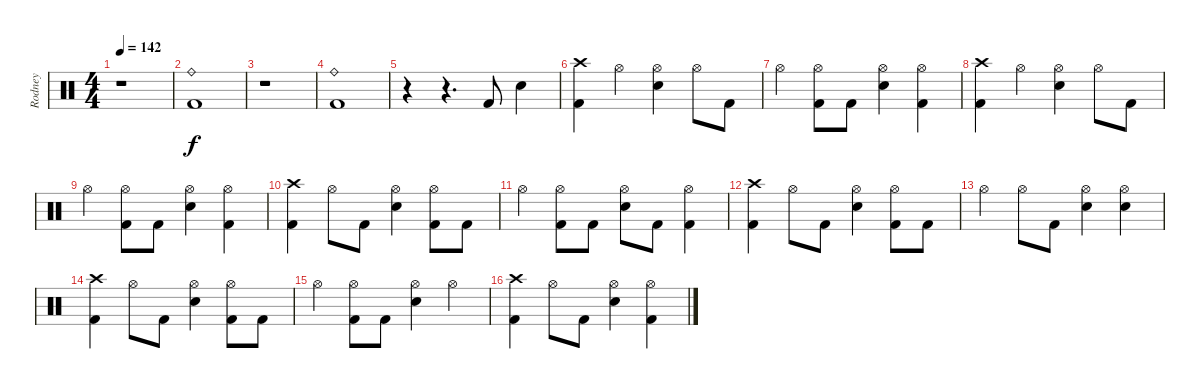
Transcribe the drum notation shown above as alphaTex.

\track ("Rodney" "Rodney") {instrument percussion}
\staff {score}
\articulation defaults
\ts (4 4)
\tempo 142
\clef neutral
\ks c
r.1{dy f} |
("Ride (bell)" "Kick (hit) 2").1 |
r.1 |
("Ride (bell)" "Kick (hit) 2").1 |
r.4 r.4{d} "Kick (hit) 2".8 "Snare (hit) 2".4 |
("Crash high (hit)" "Kick (hit) 2").4 "Hi-Hat (open)".4 ("Hi-Hat (open)" "Snare (hit) 2").4 "Hi-Hat (open)".8 "Kick (hit) 2".8 |
"Hi-Hat (open)".4 ("Hi-Hat (open)" "Kick (hit) 2").8 "Kick (hit) 2".8 ("Hi-Hat (open)" "Snare (hit) 2").4 ("Hi-Hat (open)" "Kick (hit) 2").4 |
("Crash high (hit)" "Kick (hit) 2").4 "Hi-Hat (open)".4 ("Hi-Hat (open)" "Snare (hit) 2").4 "Hi-Hat (open)".8 "Kick (hit) 2".8 |
"Hi-Hat (open)".4 ("Hi-Hat (open)" "Kick (hit) 2").8 "Kick (hit) 2".8 ("Hi-Hat (open)" "Snare (hit) 2").4 ("Hi-Hat (open)" "Kick (hit) 2").4 |
("Crash high (hit)" "Kick (hit) 2").4 "Hi-Hat (open)".8 "Kick (hit) 2".8 ("Hi-Hat (open)" "Snare (hit) 2").4 ("Hi-Hat (open)" "Kick (hit) 2").8 "Kick (hit) 2".8 |
"Hi-Hat (open)".4 ("Hi-Hat (open)" "Kick (hit) 2").8 "Kick (hit) 2".8 ("Hi-Hat (open)" "Snare (hit) 2").8 "Kick (hit) 2".8 ("Hi-Hat (open)" "Kick (hit) 2").4 |
("Crash high (hit)" "Kick (hit) 2").4 "Hi-Hat (open)".8 "Kick (hit) 2".8 ("Hi-Hat (open)" "Snare (hit) 2").4 ("Hi-Hat (open)" "Kick (hit) 2").8 "Kick (hit) 2".8 |
"Hi-Hat (open)".4 "Hi-Hat (open)".8 "Kick (hit) 2".8 ("Hi-Hat (open)" "Snare (hit) 2").4 ("Hi-Hat (open)" "Snare (hit) 2").4 |
("Crash high (hit)" "Kick (hit) 2").4 "Hi-Hat (open)".8 "Kick (hit) 2".8 ("Hi-Hat (open)" "Snare (hit) 2").4 ("Hi-Hat (open)" "Kick (hit) 2").8 "Kick (hit) 2".8 |
"Hi-Hat (open)".4 ("Hi-Hat (open)" "Kick (hit) 2").8 "Kick (hit) 2".8 ("Hi-Hat (open)" "Snare (hit) 2").4 "Hi-Hat (open)".4 |
("Crash high (hit)" "Kick (hit) 2").4 "Hi-Hat (open)".8 "Kick (hit) 2".8 ("Hi-Hat (open)" "Snare (hit) 2").4 ("Hi-Hat (open)" "Kick (hit) 2").4
